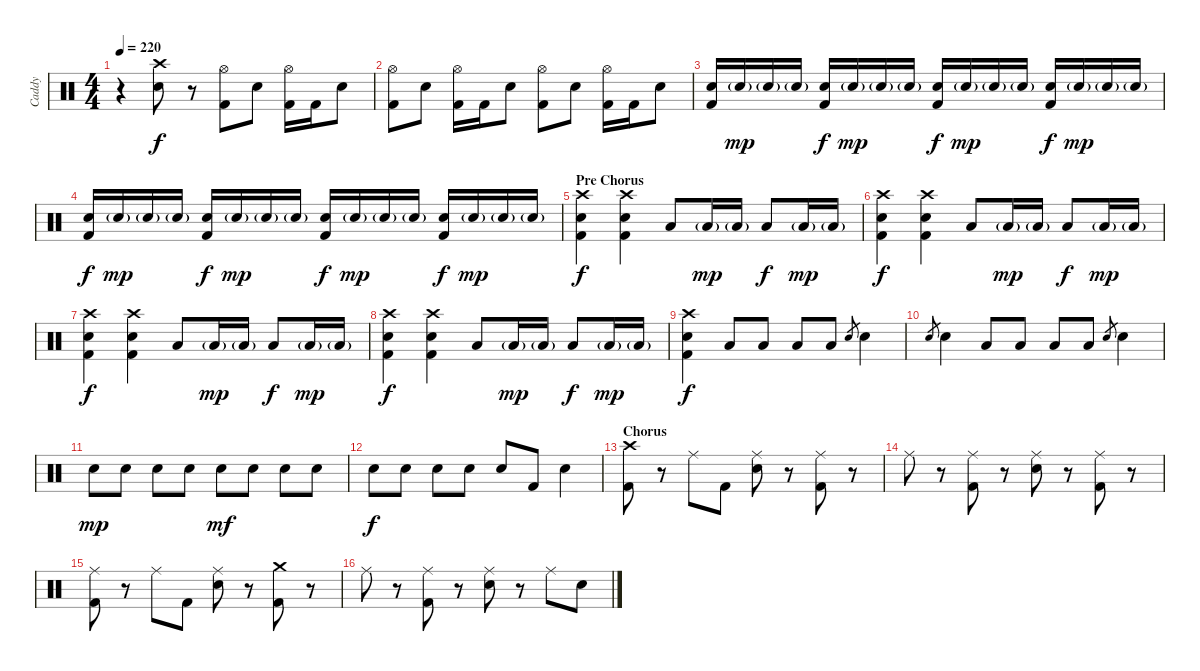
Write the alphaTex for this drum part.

\track ("Caddy" "Caddy") {instrument percussion}
\staff {score}
\articulation defaults
\ts (4 4)
\tempo 220
\clef neutral
\ks c
r.4{dy f} ("Crash high (hit)" "Electric Snare (hit)").8 r.8 ("Hi-Hat (open)" "Kick (hit) 2").8 "Electric Snare (hit)".8 ("Hi-Hat (open)" "Kick (hit) 2").16 "Kick (hit) 2".16 "Electric Snare (hit)".8 |
("Hi-Hat (open)" "Kick (hit) 2").8 "Electric Snare (hit)".8 ("Hi-Hat (open)" "Kick (hit) 2").16 "Kick (hit) 2".16 "Electric Snare (hit)".8 ("Hi-Hat (open)" "Kick (hit) 2").8 "Electric Snare (hit)".8 ("Hi-Hat (open)" "Kick (hit) 2").16 "Kick (hit) 2".16 "Electric Snare (hit)".8 |
("Electric Snare (hit)" "Kick (hit) 2").16 "Electric Snare (hit)"{g}.16{dy mp} "Electric Snare (hit)"{g}.16 "Electric Snare (hit)"{g}.16 ("Electric Snare (hit)" "Kick (hit) 2").16{dy f} "Electric Snare (hit)"{g}.16{dy mp} "Electric Snare (hit)"{g}.16 "Electric Snare (hit)"{g}.16 ("Electric Snare (hit)" "Kick (hit) 2").16{dy f} "Electric Snare (hit)"{g}.16{dy mp} "Electric Snare (hit)"{g}.16 "Electric Snare (hit)"{g}.16 ("Electric Snare (hit)" "Kick (hit) 2").16{dy f} "Electric Snare (hit)"{g}.16{dy mp} "Electric Snare (hit)"{g}.16 "Electric Snare (hit)"{g}.16 |
("Electric Snare (hit)" "Kick (hit) 2").16{dy f} "Electric Snare (hit)"{g}.16{dy mp} "Electric Snare (hit)"{g}.16 "Electric Snare (hit)"{g}.16 ("Electric Snare (hit)" "Kick (hit) 2").16{dy f} "Electric Snare (hit)"{g}.16{dy mp} "Electric Snare (hit)"{g}.16 "Electric Snare (hit)"{g}.16 ("Electric Snare (hit)" "Kick (hit) 2").16{dy f} "Electric Snare (hit)"{g}.16{dy mp} "Electric Snare (hit)"{g}.16 "Electric Snare (hit)"{g}.16 ("Electric Snare (hit)" "Kick (hit) 2").16{dy f} "Electric Snare (hit)"{g}.16{dy mp} "Electric Snare (hit)"{g}.16 "Electric Snare (hit)"{g}.16 |
\section ("" "Pre Chorus")
("Crash high (hit)" "Electric Snare (hit)" "Kick (hit) 2").4{dy f} ("Crash high (hit)" "Electric Snare (hit)" "Kick (hit) 2").4 "Low Floor Tom (hit)".8 "Low Floor Tom (hit)"{g}.16{dy mp} "Low Floor Tom (hit)"{g}.16 "Low Floor Tom (hit)".8{dy f} "Low Floor Tom (hit)"{g}.16{dy mp} "Low Floor Tom (hit)"{g}.16 |
("Crash high (hit)" "Electric Snare (hit)" "Kick (hit) 2").4{dy f} ("Crash high (hit)" "Electric Snare (hit)" "Kick (hit) 2").4 "Low Floor Tom (hit)".8 "Low Floor Tom (hit)"{g}.16{dy mp} "Low Floor Tom (hit)"{g}.16 "Low Floor Tom (hit)".8{dy f} "Low Floor Tom (hit)"{g}.16{dy mp} "Low Floor Tom (hit)"{g}.16 |
("Crash high (hit)" "Electric Snare (hit)" "Kick (hit) 2").4{dy f} ("Crash high (hit)" "Electric Snare (hit)" "Kick (hit) 2").4 "Low Floor Tom (hit)".8 "Low Floor Tom (hit)"{g}.16{dy mp} "Low Floor Tom (hit)"{g}.16 "Low Floor Tom (hit)".8{dy f} "Low Floor Tom (hit)"{g}.16{dy mp} "Low Floor Tom (hit)"{g}.16 |
("Crash high (hit)" "Electric Snare (hit)" "Kick (hit) 2").4{dy f} ("Crash high (hit)" "Electric Snare (hit)" "Kick (hit) 2").4 "Low Floor Tom (hit)".8 "Low Floor Tom (hit)"{g}.16{dy mp} "Low Floor Tom (hit)"{g}.16 "Low Floor Tom (hit)".8{dy f} "Low Floor Tom (hit)"{g}.16{dy mp} "Low Floor Tom (hit)"{g}.16 |
("Crash high (hit)" "Electric Snare (hit)" "Kick (hit) 2").4{dy f} "Low Floor Tom (hit)".8 "Low Floor Tom (hit)".8 "Low Floor Tom (hit)".8 "Low Floor Tom (hit)".8 "Electric Snare (hit)".8{gr} "Electric Snare (hit)".4 |
"Electric Snare (hit)".8{gr} "Electric Snare (hit)".4 "Low Floor Tom (hit)".8 "Low Floor Tom (hit)".8 "Low Floor Tom (hit)".8 "Low Floor Tom (hit)".8 "Electric Snare (hit)".8{gr} "Electric Snare (hit)".4 |
"Electric Snare (hit)".8{dy mp} "Electric Snare (hit)".8 "Electric Snare (hit)".8 "Electric Snare (hit)".8 "Electric Snare (hit)".8{dy mf} "Electric Snare (hit)".8 "Electric Snare (hit)".8 "Electric Snare (hit)".8 |
"Electric Snare (hit)".8{dy f} "Electric Snare (hit)".8 "Electric Snare (hit)".8 "Electric Snare (hit)".8 "Electric Snare (hit)".8 "Kick (hit) 2".8 "Electric Snare (hit)".4 |
\section ("" "Chorus")
("Crash high (hit)" "Kick (hit) 2").8 r.8 "Ride (middle)".8 "Kick (hit) 2".8 ("Ride (middle)" "Electric Snare (hit)").8 r.8 ("Ride (middle)" "Kick (hit) 2").8 r.8 |
"Ride (middle)".8 r.8 ("Ride (middle)" "Kick (hit) 2").8 r.8 ("Ride (middle)" "Electric Snare (hit)").8 r.8 ("Ride (middle)" "Kick (hit) 2").8 r.8 |
("Ride (middle)" "Kick (hit) 2").8 r.8 "Ride (middle)".8 "Kick (hit) 2".8 ("Ride (middle)" "Electric Snare (hit)").8 r.8 ("Crash medium (hit)" "Kick (hit) 2").8 r.8 |
"Ride (middle)".8 r.8 ("Ride (middle)" "Kick (hit) 2").8 r.8 ("Ride (middle)" "Electric Snare (hit)").8 r.8 "Ride (middle)".8 "Electric Snare (hit)".8
